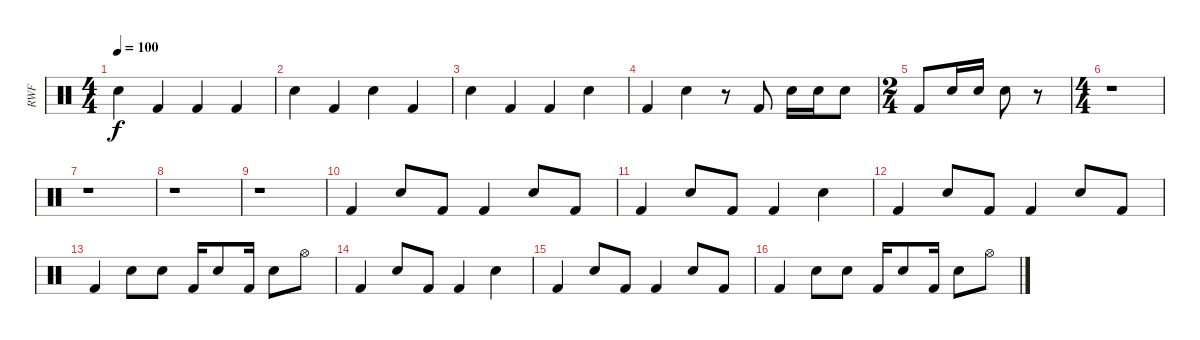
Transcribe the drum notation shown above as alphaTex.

\track ("RWF" "RWF") {instrument percussion}
\staff {score}
\articulation defaults
\ts (4 4)
\tempo 100
\clef neutral
\ks c "Electric Snare (hit)".4{dy f} "Kick (hit) 2".4 "Kick (hit) 2".4 "Kick (hit) 2".4
|
"Electric Snare (hit)".4 "Kick (hit) 2".4 "Electric Snare (hit)".4 "Kick (hit) 2".4 |
"Electric Snare (hit)".4 "Kick (hit) 2".4 "Kick (hit) 2".4 "Electric Snare (hit)".4 |
"Kick (hit) 2".4 "Electric Snare (hit)".4 r.8 "Kick (hit) 2".8 "Electric Snare (hit)".16 "Electric Snare (hit)".16 "Electric Snare (hit)".8 |
\ts (2 4)
"Kick (hit) 2".8 "Electric Snare (hit)".16 "Electric Snare (hit)".16 "Electric Snare (hit)".8 r.8 |
\ts (4 4)
r.1 |
r.1 |
r.1 |
r.1 |
"Kick (hit) 2".4 "Electric Snare (hit)".8 "Kick (hit) 2".8 "Kick (hit) 2".4 "Electric Snare (hit)".8 "Kick (hit) 2".8 |
"Kick (hit) 2".4 "Electric Snare (hit)".8 "Kick (hit) 2".8 "Kick (hit) 2".4 "Electric Snare (hit)".4 |
"Kick (hit) 2".4 "Electric Snare (hit)".8 "Kick (hit) 2".8 "Kick (hit) 2".4 "Electric Snare (hit)".8 "Kick (hit) 2".8 |
"Kick (hit) 2".4 "Electric Snare (hit)".8 "Electric Snare (hit)".8 "Kick (hit) 2".16 "Electric Snare (hit)".8 "Kick (hit) 2".16 "Electric Snare (hit)".8 "Hi-Hat (open)".8 |
"Kick (hit) 2".4 "Electric Snare (hit)".8 "Kick (hit) 2".8 "Kick (hit) 2".4 "Electric Snare (hit)".4 |
"Kick (hit) 2".4 "Electric Snare (hit)".8 "Kick (hit) 2".8 "Kick (hit) 2".4 "Electric Snare (hit)".8 "Kick (hit) 2".8 |
"Kick (hit) 2".4 "Electric Snare (hit)".8 "Electric Snare (hit)".8 "Kick (hit) 2".16 "Electric Snare (hit)".8 "Kick (hit) 2".16 "Electric Snare (hit)".8 "Hi-Hat (open)".8
